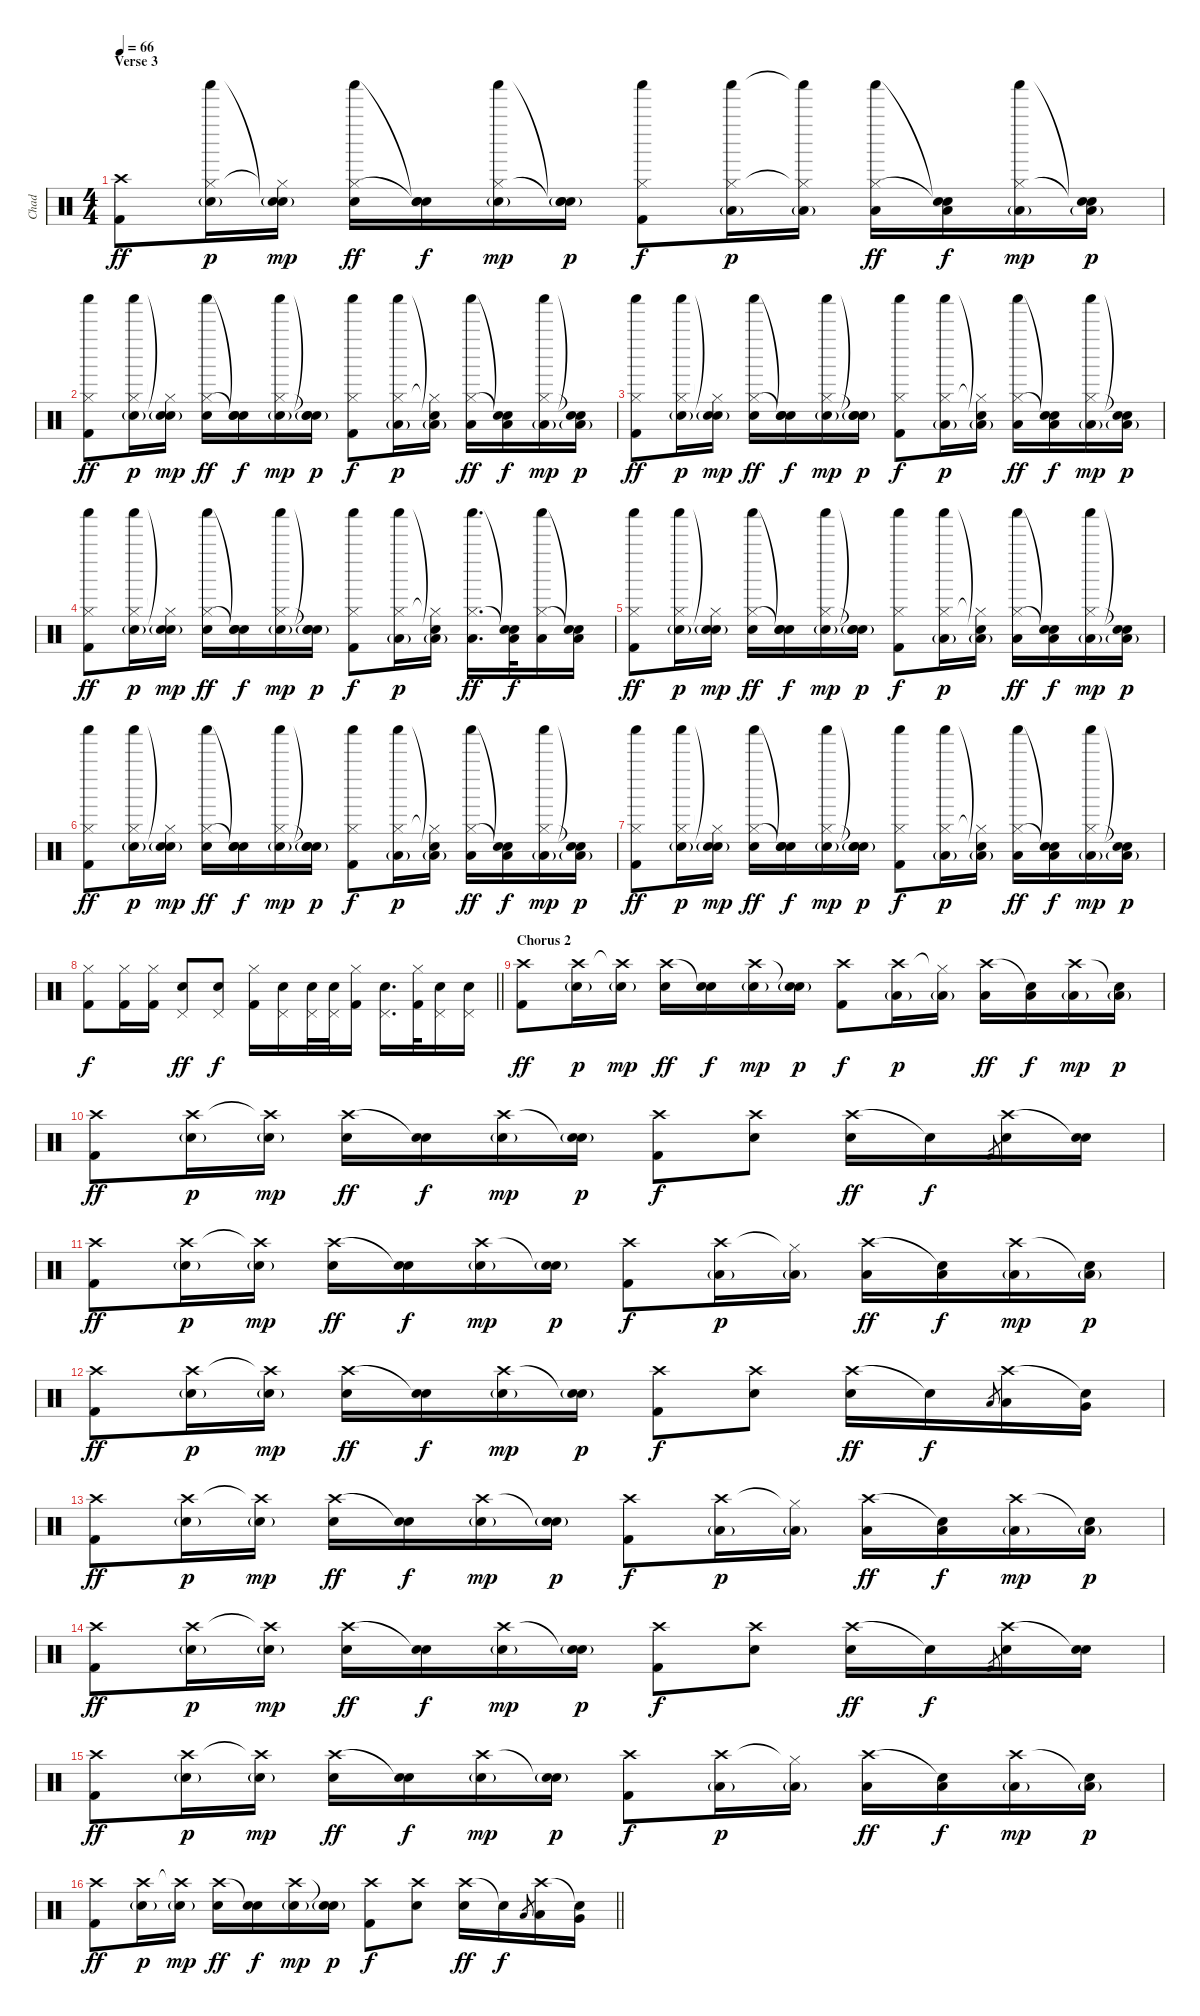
\track ("Chad" "Chad") {instrument percussion}
\staff {score}
\articulation defaults
\ts (4 4)
\section ("" "Verse 3")
\tempo 66
\clef neutral
\ks c
("Crash high (hit)" "Kick (hit) 2").8{dy ff} ("Hi-Hat (closed)" "Shaker (hit)" "Snare (hit) 2"{g}).16{dy p} ("Hi-Hat (closed)"{t} "Snare (hit)"{t} "Snare (hit) 2"{g}).16{dy mp} ("Hi-Hat (closed)" "Shaker (hit)" "Snare (hit) 2").16{dy ff} ("Snare (hit)"{t} "Snare (hit)"{t} "Snare (hit) 2").16{dy f} ("Hi-Hat (closed)" "Shaker (hit)" "Snare (hit) 2"{g}).16{dy mp} ("Snare (hit)"{t} "Snare (hit)"{t} "Snare (hit) 2"{g}).16{dy p} ("Hi-Hat (closed)" "Shaker (hit)" "Kick (hit) 2").8{dy f} ("Hi-Hat (closed)" "Shaker (hit)" "Low Floor Tom (hit)"{g}).16{dy p} ("Hi-Hat (closed)"{t} "Shaker (hit)"{t} "Low Floor Tom (hit)"{g}).16 ("Hi-Hat (closed)" "Shaker (hit)" "Low Floor Tom (hit)").16{dy ff} ("Snare (hit)"{t} "Snare (hit)"{t} "Low Floor Tom (hit)").16{dy f} ("Hi-Hat (closed)" "Shaker (hit)" "Low Floor Tom (hit)"{g}).16{dy mp} ("Snare (hit)"{t} "Snare (hit)"{t} "Low Floor Tom (hit)"{g}).16{dy p} |
("Hi-Hat (closed)" "Shaker (hit)" "Kick (hit) 2").8{dy ff} ("Hi-Hat (closed)" "Shaker (hit)" "Snare (hit) 2"{g}).16{dy p} ("Hi-Hat (closed)"{t} "Snare (hit)"{t} "Snare (hit) 2"{g}).16{dy mp} ("Hi-Hat (closed)" "Shaker (hit)" "Snare (hit) 2").16{dy ff} ("Snare (hit)"{t} "Snare (hit)"{t} "Snare (hit) 2").16{dy f} ("Hi-Hat (closed)" "Shaker (hit)" "Snare (hit) 2"{g}).16{dy mp} ("Snare (hit)"{t} "Snare (hit)"{t} "Snare (hit) 2"{g}).16{dy p} ("Hi-Hat (closed)" "Shaker (hit)" "Kick (hit) 2").8{dy f} ("Hi-Hat (closed)" "Shaker (hit)" "Low Floor Tom (hit)"{g}).16{dy p} ("Hi-Hat (closed)"{t} "Snare (hit)"{t} "Low Floor Tom (hit)"{g}).16 ("Hi-Hat (closed)" "Shaker (hit)" "Low Floor Tom (hit)").16{dy ff} ("Snare (hit)"{t} "Snare (hit)"{t} "Low Floor Tom (hit)").16{dy f} ("Hi-Hat (closed)" "Shaker (hit)" "Low Floor Tom (hit)"{g}).16{dy mp} ("Snare (hit)"{t} "Snare (hit)"{t} "Low Floor Tom (hit)"{g}).16{dy p} |
("Hi-Hat (closed)" "Shaker (hit)" "Kick (hit) 2").8{dy ff} ("Hi-Hat (closed)" "Shaker (hit)" "Snare (hit) 2"{g}).16{dy p} ("Hi-Hat (closed)"{t} "Snare (hit)"{t} "Snare (hit) 2"{g}).16{dy mp} ("Hi-Hat (closed)" "Shaker (hit)" "Snare (hit) 2").16{dy ff} ("Snare (hit)"{t} "Snare (hit)"{t} "Snare (hit) 2").16{dy f} ("Hi-Hat (closed)" "Shaker (hit)" "Snare (hit) 2"{g}).16{dy mp} ("Snare (hit)"{t} "Snare (hit)"{t} "Snare (hit) 2"{g}).16{dy p} ("Hi-Hat (closed)" "Shaker (hit)" "Kick (hit) 2").8{dy f} ("Hi-Hat (closed)" "Shaker (hit)" "Low Floor Tom (hit)"{g}).16{dy p} ("Hi-Hat (closed)"{t} "Snare (hit)"{t} "Low Floor Tom (hit)"{g}).16 ("Hi-Hat (closed)" "Shaker (hit)" "Low Floor Tom (hit)").16{dy ff} ("Snare (hit)"{t} "Snare (hit)"{t} "Low Floor Tom (hit)").16{dy f} ("Hi-Hat (closed)" "Shaker (hit)" "Low Floor Tom (hit)"{g}).16{dy mp} ("Snare (hit)"{t} "Snare (hit)"{t} "Low Floor Tom (hit)"{g}).16{dy p} |
("Hi-Hat (closed)" "Shaker (hit)" "Kick (hit) 2").8{dy ff} ("Hi-Hat (closed)" "Shaker (hit)" "Snare (hit) 2"{g}).16{dy p} ("Hi-Hat (closed)"{t} "Snare (hit)"{t} "Snare (hit) 2"{g}).16{dy mp} ("Hi-Hat (closed)" "Shaker (hit)" "Snare (hit) 2").16{dy ff} ("Snare (hit)"{t} "Snare (hit)"{t} "Snare (hit) 2").16{dy f} ("Hi-Hat (closed)" "Shaker (hit)" "Snare (hit) 2"{g}).16{dy mp} ("Snare (hit)"{t} "Snare (hit)"{t} "Snare (hit) 2"{g}).16{dy p} ("Hi-Hat (closed)" "Shaker (hit)" "Kick (hit) 2").8{dy f} ("Hi-Hat (closed)" "Shaker (hit)" "Low Floor Tom (hit)"{g}).16{dy p} ("Hi-Hat (closed)"{t} "Snare (hit)"{t} "Low Floor Tom (hit)"{g}).16 ("Hi-Hat (closed)" "Shaker (hit)" "Low Floor Tom (hit)").16{d dy ff} ("Snare (hit)"{t} "Snare (hit)"{t} "Low Floor Tom (hit)").32{dy f} ("Hi-Hat (closed)" "Shaker (hit)" "Low Floor Tom (hit)").16 ("Snare (hit)"{t} "Snare (hit)"{t} "Low Floor Tom (hit)").16 |
("Hi-Hat (closed)" "Shaker (hit)" "Kick (hit) 2").8{dy ff} ("Hi-Hat (closed)" "Shaker (hit)" "Snare (hit) 2"{g}).16{dy p} ("Hi-Hat (closed)"{t} "Snare (hit)"{t} "Snare (hit) 2"{g}).16{dy mp} ("Hi-Hat (closed)" "Shaker (hit)" "Snare (hit) 2").16{dy ff} ("Snare (hit)"{t} "Snare (hit)"{t} "Snare (hit) 2").16{dy f} ("Hi-Hat (closed)" "Shaker (hit)" "Snare (hit) 2"{g}).16{dy mp} ("Snare (hit)"{t} "Snare (hit)"{t} "Snare (hit) 2"{g}).16{dy p} ("Hi-Hat (closed)" "Shaker (hit)" "Kick (hit) 2").8{dy f} ("Hi-Hat (closed)" "Shaker (hit)" "Low Floor Tom (hit)"{g}).16{dy p} ("Hi-Hat (closed)"{t} "Snare (hit)"{t} "Low Floor Tom (hit)"{g}).16 ("Hi-Hat (closed)" "Shaker (hit)" "Low Floor Tom (hit)").16{dy ff} ("Snare (hit)"{t} "Snare (hit)"{t} "Low Floor Tom (hit)").16{dy f} ("Hi-Hat (closed)" "Shaker (hit)" "Low Floor Tom (hit)"{g}).16{dy mp} ("Snare (hit)"{t} "Snare (hit)"{t} "Low Floor Tom (hit)"{g}).16{dy p} |
("Hi-Hat (closed)" "Shaker (hit)" "Kick (hit) 2").8{dy ff} ("Hi-Hat (closed)" "Shaker (hit)" "Snare (hit) 2"{g}).16{dy p} ("Hi-Hat (closed)"{t} "Snare (hit)"{t} "Snare (hit) 2"{g}).16{dy mp} ("Hi-Hat (closed)" "Shaker (hit)" "Snare (hit) 2").16{dy ff} ("Snare (hit)"{t} "Snare (hit)"{t} "Snare (hit) 2").16{dy f} ("Hi-Hat (closed)" "Shaker (hit)" "Snare (hit) 2"{g}).16{dy mp} ("Snare (hit)"{t} "Snare (hit)"{t} "Snare (hit) 2"{g}).16{dy p} ("Hi-Hat (closed)" "Shaker (hit)" "Kick (hit) 2").8{dy f} ("Hi-Hat (closed)" "Shaker (hit)" "Low Floor Tom (hit)"{g}).16{dy p} ("Hi-Hat (closed)"{t} "Snare (hit)"{t} "Low Floor Tom (hit)"{g}).16 ("Hi-Hat (closed)" "Shaker (hit)" "Low Floor Tom (hit)").16{dy ff} ("Snare (hit)"{t} "Snare (hit)"{t} "Low Floor Tom (hit)").16{dy f} ("Hi-Hat (closed)" "Shaker (hit)" "Low Floor Tom (hit)"{g}).16{dy mp} ("Snare (hit)"{t} "Snare (hit)"{t} "Low Floor Tom (hit)"{g}).16{dy p} |
("Hi-Hat (closed)" "Shaker (hit)" "Kick (hit) 2").8{dy ff} ("Hi-Hat (closed)" "Shaker (hit)" "Snare (hit) 2"{g}).16{dy p} ("Hi-Hat (closed)"{t} "Snare (hit)"{t} "Snare (hit) 2"{g}).16{dy mp} ("Hi-Hat (closed)" "Shaker (hit)" "Snare (hit) 2").16{dy ff} ("Snare (hit)"{t} "Snare (hit)"{t} "Snare (hit) 2").16{dy f} ("Hi-Hat (closed)" "Shaker (hit)" "Snare (hit) 2"{g}).16{dy mp} ("Snare (hit)"{t} "Snare (hit)"{t} "Snare (hit) 2"{g}).16{dy p} ("Hi-Hat (closed)" "Shaker (hit)" "Kick (hit) 2").8{dy f} ("Hi-Hat (closed)" "Shaker (hit)" "Low Floor Tom (hit)"{g}).16{dy p} ("Hi-Hat (closed)"{t} "Snare (hit)"{t} "Low Floor Tom (hit)"{g}).16 ("Hi-Hat (closed)" "Shaker (hit)" "Low Floor Tom (hit)").16{dy ff} ("Snare (hit)"{t} "Snare (hit)"{t} "Low Floor Tom (hit)").16{dy f} ("Hi-Hat (closed)" "Shaker (hit)" "Low Floor Tom (hit)"{g}).16{dy mp} ("Snare (hit)"{t} "Snare (hit)"{t} "Low Floor Tom (hit)"{g}).16{dy p} |
\barLineRight lightlight
("Hi-Hat (closed)" "Kick (hit) 2").8{dy f} ("Hi-Hat (closed)" "Kick (hit) 2").16 ("Hi-Hat (closed)" "Kick (hit) 2").16 ("Pedal Hi-Hat (hit)" "Snare (hit) 2").8{dy ff} ("Pedal Hi-Hat (hit)" "Snare (hit) 2").8{dy f} ("Hi-Hat (closed)" "Kick (hit) 2").16 ("Pedal Hi-Hat (hit)" "Snare (hit) 2").16 ("Pedal Hi-Hat (hit)" "Snare (hit) 2").32 ("Pedal Hi-Hat (hit)" "Snare (hit) 2").32 ("Hi-Hat (closed)" "Kick (hit) 2").16 ("Pedal Hi-Hat (hit)" "Snare (hit) 2").16{d} ("Hi-Hat (closed)" "Kick (hit) 2").32 ("Pedal Hi-Hat (hit)" "Snare (hit) 2").16 ("Pedal Hi-Hat (hit)" "Snare (hit) 2").16 |
\section ("" "Chorus 2")
("Crash high (hit)" "Kick (hit) 2").8{dy ff volume 16} ("Crash high (hit)" "Snare (hit) 2"{g}).16{dy p} ("Crash high (hit)"{t} "Snare (hit) 2"{g}).16{dy mp} ("Crash high (hit)" "Snare (hit) 2").16{dy ff} ("Snare (hit)"{t} "Snare (hit) 2").16{dy f} ("Crash high (hit)" "Snare (hit) 2"{g}).16{dy mp} ("Snare (hit)"{t} "Snare (hit) 2"{g}).16{dy p} ("Crash high (hit)" "Kick (hit) 2").8{dy f} ("Crash high (hit)" "Low Floor Tom (hit)"{g}).16{dy p} ("Hi-Hat (closed)"{t} "Low Floor Tom (hit)"{g}).16 ("Crash high (hit)" "Low Floor Tom (hit)").16{dy ff} ("Snare (hit)"{t} "Low Floor Tom (hit)").16{dy f} ("Crash high (hit)" "Low Floor Tom (hit)"{g}).16{dy mp} ("Snare (hit)"{t} "Low Floor Tom (hit)"{g}).16{dy p} |
("Crash high (hit)" "Kick (hit) 2").8{dy ff} ("Crash high (hit)" "Snare (hit) 2"{g}).16{dy p} ("Crash high (hit)"{t} "Snare (hit) 2"{g}).16{dy mp} ("Crash high (hit)" "Snare (hit) 2").16{dy ff} ("Snare (hit)"{t} "Snare (hit) 2").16{dy f} ("Crash high (hit)" "Snare (hit) 2"{g}).16{dy mp} ("Snare (hit)"{t} "Snare (hit) 2"{g}).16{dy p} ("Crash high (hit)" "Kick (hit) 2").8{dy f} ("Crash high (hit)" "Snare (hit) 2").8 ("Crash high (hit)" "Snare (hit) 2").16{dy ff} "Snare (hit)"{t}.16{dy f} "Kick (hit) 2".8{gr} ("Crash high (hit)" "Snare (hit) 2").16 ("Snare (hit)"{t} "Snare (hit) 2").16 |
("Crash high (hit)" "Kick (hit) 2").8{dy ff} ("Crash high (hit)" "Snare (hit) 2"{g}).16{dy p} ("Crash high (hit)"{t} "Snare (hit) 2"{g}).16{dy mp} ("Crash high (hit)" "Snare (hit) 2").16{dy ff} ("Snare (hit)"{t} "Snare (hit) 2").16{dy f} ("Crash high (hit)" "Snare (hit) 2"{g}).16{dy mp} ("Snare (hit)"{t} "Snare (hit) 2"{g}).16{dy p} ("Crash high (hit)" "Kick (hit) 2").8{dy f} ("Crash high (hit)" "Low Floor Tom (hit)"{g}).16{dy p} ("Hi-Hat (closed)"{t} "Low Floor Tom (hit)"{g}).16 ("Crash high (hit)" "Low Floor Tom (hit)").16{dy ff} ("Snare (hit)"{t} "Low Floor Tom (hit)").16{dy f} ("Crash high (hit)" "Low Floor Tom (hit)"{g}).16{dy mp} ("Snare (hit)"{t} "Low Floor Tom (hit)"{g}).16{dy p} |
("Crash high (hit)" "Kick (hit) 2").8{dy ff} ("Crash high (hit)" "Snare (hit) 2"{g}).16{dy p} ("Crash high (hit)"{t} "Snare (hit) 2"{g}).16{dy mp} ("Crash high (hit)" "Snare (hit) 2").16{dy ff} ("Snare (hit)"{t} "Snare (hit) 2").16{dy f} ("Crash high (hit)" "Snare (hit) 2"{g}).16{dy mp} ("Snare (hit)"{t} "Snare (hit) 2"{g}).16{dy p} ("Crash high (hit)" "Kick (hit) 2").8{dy f} ("Crash high (hit)" "Snare (hit) 2").8 ("Crash high (hit)" "Snare (hit) 2").16{dy ff} "Snare (hit)"{t}.16{dy f} "Low Floor Tom (hit)".8{gr} ("Crash high (hit)" "Low Floor Tom (hit)").16 ("Snare (hit)"{t} "Very Low Tom (hit)").16 |
("Crash high (hit)" "Kick (hit) 2").8{dy ff} ("Crash high (hit)" "Snare (hit) 2"{g}).16{dy p} ("Crash high (hit)"{t} "Snare (hit) 2"{g}).16{dy mp} ("Crash high (hit)" "Snare (hit) 2").16{dy ff} ("Snare (hit)"{t} "Snare (hit) 2").16{dy f} ("Crash high (hit)" "Snare (hit) 2"{g}).16{dy mp} ("Snare (hit)"{t} "Snare (hit) 2"{g}).16{dy p} ("Crash high (hit)" "Kick (hit) 2").8{dy f} ("Crash high (hit)" "Low Floor Tom (hit)"{g}).16{dy p} ("Hi-Hat (closed)"{t} "Low Floor Tom (hit)"{g}).16 ("Crash high (hit)" "Low Floor Tom (hit)").16{dy ff} ("Snare (hit)"{t} "Low Floor Tom (hit)").16{dy f} ("Crash high (hit)" "Low Floor Tom (hit)"{g}).16{dy mp} ("Snare (hit)"{t} "Low Floor Tom (hit)"{g}).16{dy p} |
("Crash high (hit)" "Kick (hit) 2").8{dy ff} ("Crash high (hit)" "Snare (hit) 2"{g}).16{dy p} ("Crash high (hit)"{t} "Snare (hit) 2"{g}).16{dy mp} ("Crash high (hit)" "Snare (hit) 2").16{dy ff} ("Snare (hit)"{t} "Snare (hit) 2").16{dy f} ("Crash high (hit)" "Snare (hit) 2"{g}).16{dy mp} ("Snare (hit)"{t} "Snare (hit) 2"{g}).16{dy p} ("Crash high (hit)" "Kick (hit) 2").8{dy f} ("Crash high (hit)" "Snare (hit) 2").8 ("Crash high (hit)" "Snare (hit) 2").16{dy ff} "Snare (hit)"{t}.16{dy f} "Kick (hit) 2".8{gr} ("Crash high (hit)" "Snare (hit) 2").16 ("Snare (hit)"{t} "Snare (hit) 2").16 |
("Crash high (hit)" "Kick (hit) 2").8{dy ff} ("Crash high (hit)" "Snare (hit) 2"{g}).16{dy p} ("Crash high (hit)"{t} "Snare (hit) 2"{g}).16{dy mp} ("Crash high (hit)" "Snare (hit) 2").16{dy ff} ("Snare (hit)"{t} "Snare (hit) 2").16{dy f} ("Crash high (hit)" "Snare (hit) 2"{g}).16{dy mp} ("Snare (hit)"{t} "Snare (hit) 2"{g}).16{dy p} ("Crash high (hit)" "Kick (hit) 2").8{dy f} ("Crash high (hit)" "Low Floor Tom (hit)"{g}).16{dy p} ("Hi-Hat (closed)"{t} "Low Floor Tom (hit)"{g}).16 ("Crash high (hit)" "Low Floor Tom (hit)").16{dy ff} ("Snare (hit)"{t} "Low Floor Tom (hit)").16{dy f} ("Crash high (hit)" "Low Floor Tom (hit)"{g}).16{dy mp} ("Snare (hit)"{t} "Low Floor Tom (hit)"{g}).16{dy p} |
\barLineRight lightlight
("Crash high (hit)" "Kick (hit) 2").8{dy ff} ("Crash high (hit)" "Snare (hit) 2"{g}).16{dy p} ("Crash high (hit)"{t} "Snare (hit) 2"{g}).16{dy mp} ("Crash high (hit)" "Snare (hit) 2").16{dy ff} ("Snare (hit)"{t} "Snare (hit) 2").16{dy f} ("Crash high (hit)" "Snare (hit) 2"{g}).16{dy mp} ("Snare (hit)"{t} "Snare (hit) 2"{g}).16{dy p} ("Crash high (hit)" "Kick (hit) 2").8{dy f} ("Crash high (hit)" "Snare (hit) 2").8 ("Crash high (hit)" "Snare (hit) 2").16{dy ff} "Snare (hit)"{t}.16{dy f} "Low Floor Tom (hit)".8{gr} ("Crash high (hit)" "Low Floor Tom (hit)").16 ("Snare (hit)"{t} "Very Low Tom (hit)").16
